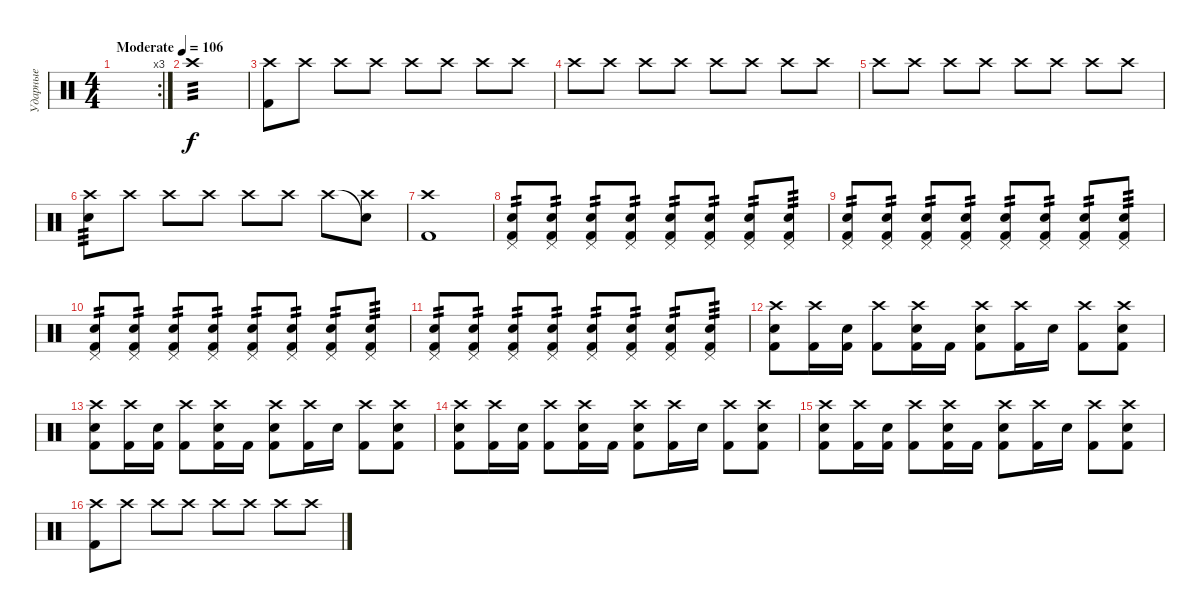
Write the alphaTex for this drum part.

\track ("Ударные" "Ударные") {instrument percussion}
\staff {score}
\articulation defaults
\rc 3
\ts (4 4)
\tempo (106 "Moderate")
\clef neutral
\ks c
|
"Crash high (hit)".1{tp 3 volume 13} |
("Kick (hit) 2" "Crash high (hit)").8 "Crash high (hit)".8 "Crash high (hit)".8 "Crash high (hit)".8 "Crash high (hit)".8 "Crash high (hit)".8 "Crash high (hit)".8 "Crash high (hit)".8 |
"Crash high (hit)".8 "Crash high (hit)".8 "Crash high (hit)".8 "Crash high (hit)".8 "Crash high (hit)".8 "Crash high (hit)".8 "Crash high (hit)".8 "Crash high (hit)".8 |
"Crash high (hit)".8 "Crash high (hit)".8 "Crash high (hit)".8 "Crash high (hit)".8 "Crash high (hit)".8 "Crash high (hit)".8 "Crash high (hit)".8 "Crash high (hit)".8 |
("Electric Snare (hit)" "Crash high (hit)").8{tp 3} "Crash high (hit)".8 "Crash high (hit)".8 "Crash high (hit)".8 "Crash high (hit)".8 "Crash high (hit)".8 "Crash high (hit)".8 ("Snare (hit)"{t} "Crash high (hit)").8 |
("Kick (hit) 2" "Crash high (hit)").1 |
("Kick (hit) 2" "Electric Snare (hit)" "Pedal Hi-Hat (hit)").8{tp 2} ("Kick (hit) 2" "Electric Snare (hit)" "Pedal Hi-Hat (hit)").8{tp 2} ("Kick (hit) 2" "Electric Snare (hit)" "Pedal Hi-Hat (hit)").8{tp 2} ("Kick (hit) 2" "Electric Snare (hit)" "Pedal Hi-Hat (hit)").8{tp 2} ("Kick (hit) 2" "Electric Snare (hit)" "Pedal Hi-Hat (hit)").8{tp 2} ("Kick (hit) 2" "Electric Snare (hit)" "Pedal Hi-Hat (hit)").8{tp 2} ("Kick (hit) 2" "Electric Snare (hit)" "Pedal Hi-Hat (hit)").8{tp 2} ("Kick (hit) 2" "Electric Snare (hit)" "Pedal Hi-Hat (hit)").8{tp 3} |
("Kick (hit) 2" "Electric Snare (hit)" "Pedal Hi-Hat (hit)").8{tp 2} ("Kick (hit) 2" "Electric Snare (hit)" "Pedal Hi-Hat (hit)").8{tp 2} ("Kick (hit) 2" "Electric Snare (hit)" "Pedal Hi-Hat (hit)").8{tp 2} ("Kick (hit) 2" "Electric Snare (hit)" "Pedal Hi-Hat (hit)").8{tp 2} ("Kick (hit) 2" "Electric Snare (hit)" "Pedal Hi-Hat (hit)").8{tp 2} ("Kick (hit) 2" "Electric Snare (hit)" "Pedal Hi-Hat (hit)").8{tp 2} ("Kick (hit) 2" "Electric Snare (hit)" "Pedal Hi-Hat (hit)").8{tp 2} ("Kick (hit) 2" "Electric Snare (hit)" "Pedal Hi-Hat (hit)").8{tp 3} |
("Kick (hit) 2" "Electric Snare (hit)" "Pedal Hi-Hat (hit)").8{tp 2} ("Kick (hit) 2" "Electric Snare (hit)" "Pedal Hi-Hat (hit)").8{tp 2} ("Kick (hit) 2" "Electric Snare (hit)" "Pedal Hi-Hat (hit)").8{tp 2} ("Kick (hit) 2" "Electric Snare (hit)" "Pedal Hi-Hat (hit)").8{tp 2} ("Kick (hit) 2" "Electric Snare (hit)" "Pedal Hi-Hat (hit)").8{tp 2} ("Kick (hit) 2" "Electric Snare (hit)" "Pedal Hi-Hat (hit)").8{tp 2} ("Kick (hit) 2" "Electric Snare (hit)" "Pedal Hi-Hat (hit)").8{tp 2} ("Kick (hit) 2" "Electric Snare (hit)" "Pedal Hi-Hat (hit)").8{tp 3} |
("Kick (hit) 2" "Electric Snare (hit)" "Pedal Hi-Hat (hit)").8{tp 2} ("Kick (hit) 2" "Electric Snare (hit)" "Pedal Hi-Hat (hit)").8{tp 2} ("Kick (hit) 2" "Electric Snare (hit)" "Pedal Hi-Hat (hit)").8{tp 2} ("Kick (hit) 2" "Electric Snare (hit)" "Pedal Hi-Hat (hit)").8{tp 2} ("Kick (hit) 2" "Electric Snare (hit)" "Pedal Hi-Hat (hit)").8{tp 2} ("Kick (hit) 2" "Electric Snare (hit)" "Pedal Hi-Hat (hit)").8{tp 2} ("Kick (hit) 2" "Electric Snare (hit)" "Pedal Hi-Hat (hit)").8{tp 2} ("Kick (hit) 2" "Electric Snare (hit)" "Pedal Hi-Hat (hit)").8{tp 3} |
("Kick (hit) 2" "Electric Snare (hit)" "Crash high (hit)").8 ("Kick (hit) 2" "Crash high (hit)").16 ("Kick (hit) 2" "Electric Snare (hit)").16 ("Kick (hit) 2" "Crash high (hit)").8 ("Kick (hit) 2" "Electric Snare (hit)" "Crash high (hit)").16 "Kick (hit) 2".16 ("Kick (hit) 2" "Electric Snare (hit)" "Crash high (hit)").8 ("Kick (hit) 2" "Crash high (hit)").16 "Electric Snare (hit)".16 ("Kick (hit) 2" "Crash high (hit)").8 ("Kick (hit) 2" "Electric Snare (hit)" "Crash high (hit)").8 |
("Kick (hit) 2" "Electric Snare (hit)" "Crash high (hit)").8 ("Kick (hit) 2" "Crash high (hit)").16 ("Kick (hit) 2" "Electric Snare (hit)").16 ("Kick (hit) 2" "Crash high (hit)").8 ("Kick (hit) 2" "Electric Snare (hit)" "Crash high (hit)").16 "Kick (hit) 2".16 ("Kick (hit) 2" "Electric Snare (hit)" "Crash high (hit)").8 ("Kick (hit) 2" "Crash high (hit)").16 "Electric Snare (hit)".16 ("Kick (hit) 2" "Crash high (hit)").8 ("Kick (hit) 2" "Electric Snare (hit)" "Crash high (hit)").8 |
("Kick (hit) 2" "Electric Snare (hit)" "Crash high (hit)").8 ("Kick (hit) 2" "Crash high (hit)").16 ("Kick (hit) 2" "Electric Snare (hit)").16 ("Kick (hit) 2" "Crash high (hit)").8 ("Kick (hit) 2" "Electric Snare (hit)" "Crash high (hit)").16 "Kick (hit) 2".16 ("Kick (hit) 2" "Electric Snare (hit)" "Crash high (hit)").8 ("Kick (hit) 2" "Crash high (hit)").16 "Electric Snare (hit)".16 ("Kick (hit) 2" "Crash high (hit)").8 ("Kick (hit) 2" "Electric Snare (hit)" "Crash high (hit)").8 |
("Kick (hit) 2" "Electric Snare (hit)" "Crash high (hit)").8 ("Kick (hit) 2" "Crash high (hit)").16 ("Kick (hit) 2" "Electric Snare (hit)").16 ("Kick (hit) 2" "Crash high (hit)").8 ("Kick (hit) 2" "Electric Snare (hit)" "Crash high (hit)").16 "Kick (hit) 2".16 ("Kick (hit) 2" "Electric Snare (hit)" "Crash high (hit)").8 ("Kick (hit) 2" "Crash high (hit)").16 "Electric Snare (hit)".16 ("Kick (hit) 2" "Crash high (hit)").8 ("Kick (hit) 2" "Electric Snare (hit)" "Crash high (hit)").8 |
("Kick (hit) 2" "Crash high (hit)").8 "Crash high (hit)".8 "Crash high (hit)".8 "Crash high (hit)".8 "Crash high (hit)".8 "Crash high (hit)".8 "Crash high (hit)".8 "Crash high (hit)".8
